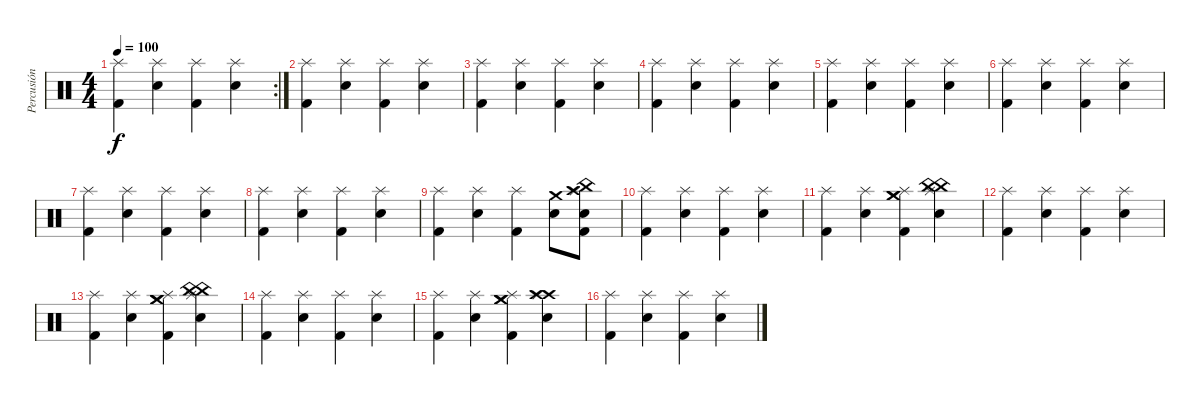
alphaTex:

\track ("Percusión" "Percusión") {instrument percussion}
\staff {score}
\articulation defaults
\rc 2
\ts (4 4)
\tempo 100
\clef neutral
\ks c
("Splash (hit)" "Kick (hit) 2").4{dy f} ("Splash (hit)" "Snare (hit) 2").4 ("Splash (hit)" "Kick (hit) 2").4 ("Splash (hit)" "Snare (hit) 2").4 |
("Splash (hit)" "Kick (hit) 2").4 ("Splash (hit)" "Snare (hit) 2").4 ("Splash (hit)" "Kick (hit) 2").4 ("Splash (hit)" "Snare (hit) 2").4 |
("Splash (hit)" "Kick (hit) 2").4 ("Splash (hit)" "Snare (hit) 2").4 ("Splash (hit)" "Kick (hit) 2").4 ("Splash (hit)" "Snare (hit) 2").4 |
("Splash (hit)" "Kick (hit) 2").4 ("Splash (hit)" "Snare (hit) 2").4 ("Splash (hit)" "Kick (hit) 2").4 ("Splash (hit)" "Snare (hit) 2").4 |
("Splash (hit)" "Kick (hit) 2").4 ("Splash (hit)" "Snare (hit) 2").4 ("Splash (hit)" "Kick (hit) 2").4 ("Splash (hit)" "Snare (hit) 2").4 |
("Splash (hit)" "Kick (hit) 2").4 ("Splash (hit)" "Snare (hit) 2").4 ("Splash (hit)" "Kick (hit) 2").4 ("Splash (hit)" "Snare (hit) 2").4 |
("Splash (hit)" "Kick (hit) 2").4 ("Splash (hit)" "Snare (hit) 2").4 ("Splash (hit)" "Kick (hit) 2").4 ("Splash (hit)" "Snare (hit) 2").4 |
("Splash (hit)" "Kick (hit) 2").4 ("Splash (hit)" "Snare (hit) 2").4 ("Splash (hit)" "Kick (hit) 2").4 ("Splash (hit)" "Snare (hit) 2").4 |
("Splash (hit)" "Kick (hit) 2").4 ("Splash (hit)" "Snare (hit) 2").4 ("Splash (hit)" "Kick (hit) 2").4 ("Crash medium (hit)" "Snare (hit) 2").8 ("Crash high (hit)" "Splash (hit)" "China (hit)" "Kick (hit) 2" "Snare (hit) 2").8 |
("Splash (hit)" "Kick (hit) 2").4 ("Splash (hit)" "Snare (hit) 2").4 ("Splash (hit)" "Kick (hit) 2").4 ("Splash (hit)" "Snare (hit) 2").4 |
("Splash (hit)" "Kick (hit) 2").4 ("Splash (hit)" "Snare (hit) 2").4 ("Crash medium (hit)" "Crash medium (hit)" "Splash (hit)" "Kick (hit) 2").4 ("China (hit)" "China (hit)" "Splash (hit)" "Snare (hit) 2").4 |
("Splash (hit)" "Kick (hit) 2").4 ("Splash (hit)" "Snare (hit) 2").4 ("Splash (hit)" "Kick (hit) 2").4 ("Splash (hit)" "Snare (hit) 2").4 |
("Splash (hit)" "Kick (hit) 2").4 ("Splash (hit)" "Snare (hit) 2").4 ("Crash medium (hit)" "Crash medium (hit)" "Splash (hit)" "Kick (hit) 2").4 ("China (hit)" "China (hit)" "Splash (hit)" "Snare (hit) 2").4 |
("Splash (hit)" "Kick (hit) 2").4 ("Splash (hit)" "Snare (hit) 2").4 ("Splash (hit)" "Kick (hit) 2").4 ("Splash (hit)" "Snare (hit) 2").4 |
("Splash (hit)" "Kick (hit) 2").4 ("Splash (hit)" "Snare (hit) 2").4 ("Crash medium (hit)" "Crash medium (hit)" "Splash (hit)" "Kick (hit) 2").4 ("Crash high (hit)" "Crash high (hit)" "Splash (hit)" "Snare (hit) 2").4 |
("Splash (hit)" "Kick (hit) 2").4 ("Splash (hit)" "Snare (hit) 2").4 ("Splash (hit)" "Kick (hit) 2").4 ("Splash (hit)" "Snare (hit) 2").4
